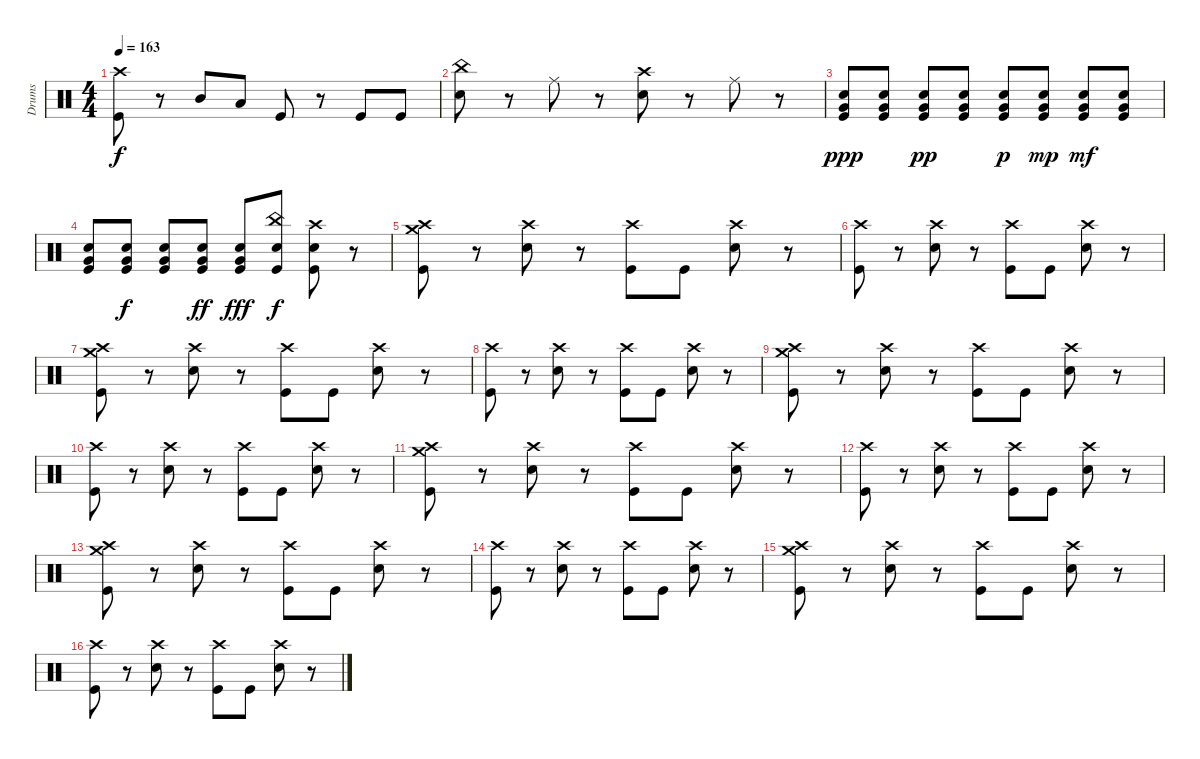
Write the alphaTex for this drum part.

\track ("Drums" "Drums") {instrument percussion}
\staff {score}
\articulation defaults
\ts (4 4)
\tempo 163
\clef neutral
\ks c
("Crash high (hit)" "Kick (hit)").8{dy f} r.8 "Mid Tom (hit)".8 "Low Tom (hit)".8 "Kick (hit)".8 r.8 "Kick (hit)".8 "Kick (hit)".8 |
("China (hit)" "Electric Snare (hit)").8 r.8 "Ride (middle)".8 r.8 ("Crash high (hit)" "Electric Snare (hit)").8 r.8 "Ride (middle)".8 r.8 |
("Electric Snare (hit)" "Very Low Tom (hit)" "Kick (hit)").8{dy ppp} ("Electric Snare (hit)" "Very Low Tom (hit)" "Kick (hit)").8 ("Electric Snare (hit)" "Very Low Tom (hit)" "Kick (hit)").8{dy pp} ("Electric Snare (hit)" "Very Low Tom (hit)" "Kick (hit)").8 ("Electric Snare (hit)" "Very Low Tom (hit)" "Kick (hit)").8{dy p} ("Electric Snare (hit)" "Very Low Tom (hit)" "Kick (hit)").8{dy mp} ("Electric Snare (hit)" "Very Low Tom (hit)" "Kick (hit)").8{dy mf} ("Electric Snare (hit)" "Very Low Tom (hit)" "Kick (hit)").8 |
("Electric Snare (hit)" "Kick (hit)" "Very Low Tom (hit)").8 ("Electric Snare (hit)" "Kick (hit)" "Very Low Tom (hit)").8{dy f} ("Electric Snare (hit)" "Kick (hit)" "Very Low Tom (hit)").8 ("Electric Snare (hit)" "Kick (hit)" "Very Low Tom (hit)").8{dy ff} ("Electric Snare (hit)" "Kick (hit)" "Very Low Tom (hit)").8{dy fff} ("Electric Snare (hit)" "Kick (hit)" "China (hit)").8{dy f} ("Electric Snare (hit)" "Kick (hit)" "Crash high (hit)").8 r.8 |
("Crash high (hit)" "Crash medium (hit)" "Kick (hit)").8 r.8 ("Crash high (hit)" "Electric Snare (hit)").8 r.8 ("Crash high (hit)" "Kick (hit)").8 "Kick (hit)".8 ("Crash high (hit)" "Electric Snare (hit)").8 r.8 |
("Crash high (hit)" "Kick (hit)").8 r.8 ("Crash high (hit)" "Electric Snare (hit)").8 r.8 ("Crash high (hit)" "Kick (hit)").8 "Kick (hit)".8 ("Crash high (hit)" "Electric Snare (hit)").8 r.8 |
("Crash high (hit)" "Crash medium (hit)" "Kick (hit)").8 r.8 ("Crash high (hit)" "Electric Snare (hit)").8 r.8 ("Crash high (hit)" "Kick (hit)").8 "Kick (hit)".8 ("Crash high (hit)" "Electric Snare (hit)").8 r.8 |
("Crash high (hit)" "Kick (hit)").8 r.8 ("Crash high (hit)" "Electric Snare (hit)").8 r.8 ("Crash high (hit)" "Kick (hit)").8 "Kick (hit)".8 ("Crash high (hit)" "Electric Snare (hit)").8 r.8 |
("Crash high (hit)" "Crash medium (hit)" "Kick (hit)").8 r.8 ("Crash high (hit)" "Electric Snare (hit)").8 r.8 ("Crash high (hit)" "Kick (hit)").8 "Kick (hit)".8 ("Crash high (hit)" "Electric Snare (hit)").8 r.8 |
("Crash high (hit)" "Kick (hit)").8 r.8 ("Crash high (hit)" "Electric Snare (hit)").8 r.8 ("Crash high (hit)" "Kick (hit)").8 "Kick (hit)".8 ("Crash high (hit)" "Electric Snare (hit)").8 r.8 |
("Crash high (hit)" "Crash medium (hit)" "Kick (hit)").8 r.8 ("Crash high (hit)" "Electric Snare (hit)").8 r.8 ("Crash high (hit)" "Kick (hit)").8 "Kick (hit)".8 ("Crash high (hit)" "Electric Snare (hit)").8 r.8 |
("Crash high (hit)" "Kick (hit)").8 r.8 ("Crash high (hit)" "Electric Snare (hit)").8 r.8 ("Crash high (hit)" "Kick (hit)").8 "Kick (hit)".8 ("Crash high (hit)" "Electric Snare (hit)").8 r.8 |
("Crash high (hit)" "Crash medium (hit)" "Kick (hit)").8 r.8 ("Crash high (hit)" "Electric Snare (hit)").8 r.8 ("Crash high (hit)" "Kick (hit)").8 "Kick (hit)".8 ("Crash high (hit)" "Electric Snare (hit)").8 r.8 |
("Crash high (hit)" "Kick (hit)").8 r.8 ("Crash high (hit)" "Electric Snare (hit)").8 r.8 ("Crash high (hit)" "Kick (hit)").8 "Kick (hit)".8 ("Crash high (hit)" "Electric Snare (hit)").8 r.8 |
("Crash high (hit)" "Crash medium (hit)" "Kick (hit)").8 r.8 ("Crash high (hit)" "Electric Snare (hit)").8 r.8 ("Crash high (hit)" "Kick (hit)").8 "Kick (hit)".8 ("Crash high (hit)" "Electric Snare (hit)").8 r.8 |
("Crash high (hit)" "Kick (hit)").8 r.8 ("Crash high (hit)" "Electric Snare (hit)").8 r.8 ("Crash high (hit)" "Kick (hit)").8 "Kick (hit)".8 ("Crash high (hit)" "Electric Snare (hit)").8 r.8
